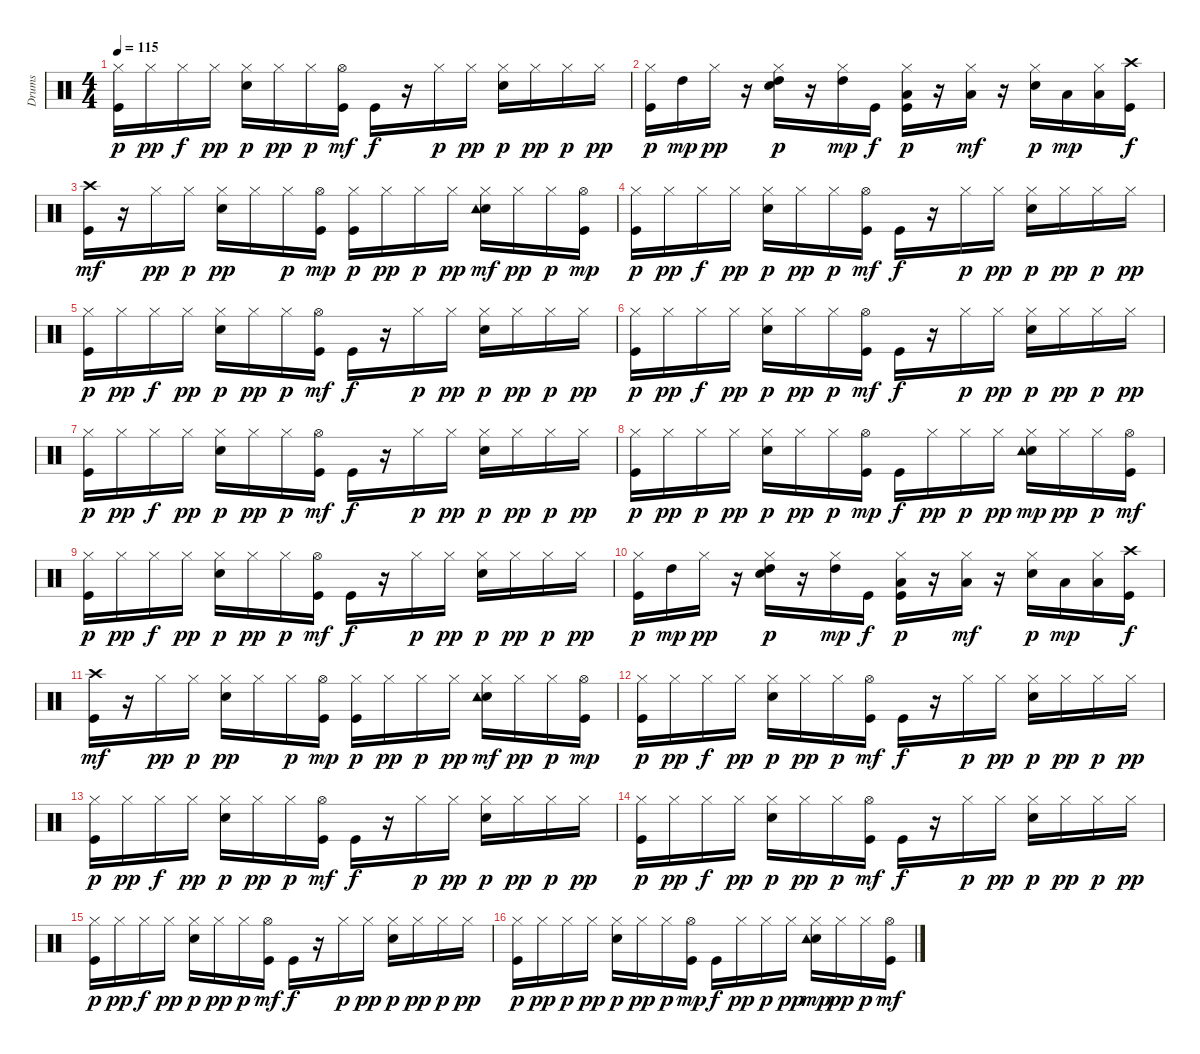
\track ("Drums  " "Drums  ") {instrument percussion}
\staff {score}
\articulation defaults
\ts (4 4)
\tempo 115
\clef neutral
\ks c
("Kick (hit)" "Hi-Hat (closed)").16{dy p} "Hi-Hat (closed)".16{dy pp} "Hi-Hat (closed)".16{dy f} "Hi-Hat (closed)".16{dy pp} ("Snare (hit) 2" "Hi-Hat (closed)").16{dy p} "Hi-Hat (closed)".16{dy pp} "Hi-Hat (closed)".16{dy p} ("Kick (hit)" "Hi-Hat (open)").16{dy mf} "Kick (hit)".16{dy f} r.16 "Hi-Hat (closed)".16{dy p} "Hi-Hat (closed)".16{dy pp} ("Snare (hit) 2" "Hi-Hat (closed)").16{dy p} "Hi-Hat (closed)".16{dy pp} "Hi-Hat (closed)".16{dy p} "Hi-Hat (closed)".16{dy pp} |
("Kick (hit)" "Hi-Hat (closed)").16{dy p} "High Tom (hit)".16{dy mp} "Hi-Hat (closed)".16{dy pp} r.16 ("Snare (hit) 2" "Hi-Hat (closed)" "High Tom (hit)").16{dy p} r.16 ("Hi-Hat (closed)" "High Tom (hit)").16{dy mp} "Kick (hit)".16{dy f} ("Kick (hit)" "Hi-Hat (closed)" "Low Tom (hit)").16{dy p} r.16 ("Hi-Hat (closed)" "Low Tom (hit)").16{dy mf} r.16 ("Snare (hit) 2" "Hi-Hat (closed)").16{dy p} "Low Floor Tom (hit)".16{dy mp} ("Hi-Hat (closed)" "Low Floor Tom (hit)").16 ("Kick (hit)" "Crash high (hit)").16{dy f} |
("Kick (hit)" "Crash high (hit)").16{dy mf} r.16 "Hi-Hat (closed)".16{dy pp} "Hi-Hat (closed)".16{dy p} ("Snare (hit) 2" "Hi-Hat (closed)").16{dy pp} "Hi-Hat (closed)".16 "Hi-Hat (closed)".16{dy p} ("Kick (hit)" "Hi-Hat (open)").16{dy mp} ("Kick (hit)" "Hi-Hat (closed)").16{dy p} "Hi-Hat (closed)".16{dy pp} "Hi-Hat (closed)".16{dy p} "Hi-Hat (closed)".16{dy pp} ("Snare (hit) 2" "Hi-Hat (closed)" "Tambourine (hit)").16{dy mf} "Hi-Hat (closed)".16{dy pp} "Hi-Hat (closed)".16{dy p} ("Kick (hit)" "Hi-Hat (open)").16{dy mp} |
("Kick (hit)" "Hi-Hat (closed)").16{dy p} "Hi-Hat (closed)".16{dy pp} "Hi-Hat (closed)".16{dy f} "Hi-Hat (closed)".16{dy pp} ("Snare (hit) 2" "Hi-Hat (closed)").16{dy p} "Hi-Hat (closed)".16{dy pp} "Hi-Hat (closed)".16{dy p} ("Kick (hit)" "Hi-Hat (open)").16{dy mf} "Kick (hit)".16{dy f} r.16 "Hi-Hat (closed)".16{dy p} "Hi-Hat (closed)".16{dy pp} ("Snare (hit) 2" "Hi-Hat (closed)").16{dy p} "Hi-Hat (closed)".16{dy pp} "Hi-Hat (closed)".16{dy p} "Hi-Hat (closed)".16{dy pp} |
("Kick (hit)" "Hi-Hat (closed)").16{dy p} "Hi-Hat (closed)".16{dy pp} "Hi-Hat (closed)".16{dy f} "Hi-Hat (closed)".16{dy pp} ("Snare (hit) 2" "Hi-Hat (closed)").16{dy p} "Hi-Hat (closed)".16{dy pp} "Hi-Hat (closed)".16{dy p} ("Kick (hit)" "Hi-Hat (open)").16{dy mf} "Kick (hit)".16{dy f} r.16 "Hi-Hat (closed)".16{dy p} "Hi-Hat (closed)".16{dy pp} ("Snare (hit) 2" "Hi-Hat (closed)").16{dy p} "Hi-Hat (closed)".16{dy pp} "Hi-Hat (closed)".16{dy p} "Hi-Hat (closed)".16{dy pp} |
("Kick (hit)" "Hi-Hat (closed)").16{dy p} "Hi-Hat (closed)".16{dy pp} "Hi-Hat (closed)".16{dy f} "Hi-Hat (closed)".16{dy pp} ("Snare (hit) 2" "Hi-Hat (closed)").16{dy p} "Hi-Hat (closed)".16{dy pp} "Hi-Hat (closed)".16{dy p} ("Kick (hit)" "Hi-Hat (open)").16{dy mf} "Kick (hit)".16{dy f} r.16 "Hi-Hat (closed)".16{dy p} "Hi-Hat (closed)".16{dy pp} ("Snare (hit) 2" "Hi-Hat (closed)").16{dy p} "Hi-Hat (closed)".16{dy pp} "Hi-Hat (closed)".16{dy p} "Hi-Hat (closed)".16{dy pp} |
("Kick (hit)" "Hi-Hat (closed)").16{dy p} "Hi-Hat (closed)".16{dy pp} "Hi-Hat (closed)".16{dy f} "Hi-Hat (closed)".16{dy pp} ("Snare (hit) 2" "Hi-Hat (closed)").16{dy p} "Hi-Hat (closed)".16{dy pp} "Hi-Hat (closed)".16{dy p} ("Kick (hit)" "Hi-Hat (open)").16{dy mf} "Kick (hit)".16{dy f} r.16 "Hi-Hat (closed)".16{dy p} "Hi-Hat (closed)".16{dy pp} ("Snare (hit) 2" "Hi-Hat (closed)").16{dy p} "Hi-Hat (closed)".16{dy pp} "Hi-Hat (closed)".16{dy p} "Hi-Hat (closed)".16{dy pp} |
("Kick (hit)" "Hi-Hat (closed)").16{dy p} "Hi-Hat (closed)".16{dy pp} "Hi-Hat (closed)".16{dy p} "Hi-Hat (closed)".16{dy pp} ("Snare (hit) 2" "Hi-Hat (closed)").16{dy p} "Hi-Hat (closed)".16{dy pp} "Hi-Hat (closed)".16{dy p} ("Kick (hit)" "Hi-Hat (open)").16{dy mp} "Kick (hit)".16{dy f} "Hi-Hat (closed)".16{dy pp} "Hi-Hat (closed)".16{dy p} "Hi-Hat (closed)".16{dy pp} ("Snare (hit) 2" "Hi-Hat (closed)" "Tambourine (hit)").16{dy mp} "Hi-Hat (closed)".16{dy pp} "Hi-Hat (closed)".16{dy p} ("Kick (hit)" "Hi-Hat (open)").16{dy mf} |
("Kick (hit)" "Hi-Hat (closed)").16{dy p} "Hi-Hat (closed)".16{dy pp} "Hi-Hat (closed)".16{dy f} "Hi-Hat (closed)".16{dy pp} ("Snare (hit) 2" "Hi-Hat (closed)").16{dy p} "Hi-Hat (closed)".16{dy pp} "Hi-Hat (closed)".16{dy p} ("Kick (hit)" "Hi-Hat (open)").16{dy mf} "Kick (hit)".16{dy f} r.16 "Hi-Hat (closed)".16{dy p} "Hi-Hat (closed)".16{dy pp} ("Snare (hit) 2" "Hi-Hat (closed)").16{dy p} "Hi-Hat (closed)".16{dy pp} "Hi-Hat (closed)".16{dy p} "Hi-Hat (closed)".16{dy pp} |
("Kick (hit)" "Hi-Hat (closed)").16{dy p} "High Tom (hit)".16{dy mp} "Hi-Hat (closed)".16{dy pp} r.16 ("Snare (hit) 2" "Hi-Hat (closed)" "High Tom (hit)").16{dy p} r.16 ("Hi-Hat (closed)" "High Tom (hit)").16{dy mp} "Kick (hit)".16{dy f} ("Kick (hit)" "Hi-Hat (closed)" "Low Tom (hit)").16{dy p} r.16 ("Hi-Hat (closed)" "Low Tom (hit)").16{dy mf} r.16 ("Snare (hit) 2" "Hi-Hat (closed)").16{dy p} "Low Floor Tom (hit)".16{dy mp} ("Hi-Hat (closed)" "Low Floor Tom (hit)").16 ("Kick (hit)" "Crash high (hit)").16{dy f} |
("Kick (hit)" "Crash high (hit)").16{dy mf} r.16 "Hi-Hat (closed)".16{dy pp} "Hi-Hat (closed)".16{dy p} ("Snare (hit) 2" "Hi-Hat (closed)").16{dy pp} "Hi-Hat (closed)".16 "Hi-Hat (closed)".16{dy p} ("Kick (hit)" "Hi-Hat (open)").16{dy mp} ("Kick (hit)" "Hi-Hat (closed)").16{dy p} "Hi-Hat (closed)".16{dy pp} "Hi-Hat (closed)".16{dy p} "Hi-Hat (closed)".16{dy pp} ("Snare (hit) 2" "Hi-Hat (closed)" "Tambourine (hit)").16{dy mf} "Hi-Hat (closed)".16{dy pp} "Hi-Hat (closed)".16{dy p} ("Kick (hit)" "Hi-Hat (open)").16{dy mp} |
("Kick (hit)" "Hi-Hat (closed)").16{dy p} "Hi-Hat (closed)".16{dy pp} "Hi-Hat (closed)".16{dy f} "Hi-Hat (closed)".16{dy pp} ("Snare (hit) 2" "Hi-Hat (closed)").16{dy p} "Hi-Hat (closed)".16{dy pp} "Hi-Hat (closed)".16{dy p} ("Kick (hit)" "Hi-Hat (open)").16{dy mf} "Kick (hit)".16{dy f} r.16 "Hi-Hat (closed)".16{dy p} "Hi-Hat (closed)".16{dy pp} ("Snare (hit) 2" "Hi-Hat (closed)").16{dy p} "Hi-Hat (closed)".16{dy pp} "Hi-Hat (closed)".16{dy p} "Hi-Hat (closed)".16{dy pp} |
("Kick (hit)" "Hi-Hat (closed)").16{dy p} "Hi-Hat (closed)".16{dy pp} "Hi-Hat (closed)".16{dy f} "Hi-Hat (closed)".16{dy pp} ("Snare (hit) 2" "Hi-Hat (closed)").16{dy p} "Hi-Hat (closed)".16{dy pp} "Hi-Hat (closed)".16{dy p} ("Kick (hit)" "Hi-Hat (open)").16{dy mf} "Kick (hit)".16{dy f} r.16 "Hi-Hat (closed)".16{dy p} "Hi-Hat (closed)".16{dy pp} ("Snare (hit) 2" "Hi-Hat (closed)").16{dy p} "Hi-Hat (closed)".16{dy pp} "Hi-Hat (closed)".16{dy p} "Hi-Hat (closed)".16{dy pp} |
("Kick (hit)" "Hi-Hat (closed)").16{dy p} "Hi-Hat (closed)".16{dy pp} "Hi-Hat (closed)".16{dy f} "Hi-Hat (closed)".16{dy pp} ("Snare (hit) 2" "Hi-Hat (closed)").16{dy p} "Hi-Hat (closed)".16{dy pp} "Hi-Hat (closed)".16{dy p} ("Kick (hit)" "Hi-Hat (open)").16{dy mf} "Kick (hit)".16{dy f} r.16 "Hi-Hat (closed)".16{dy p} "Hi-Hat (closed)".16{dy pp} ("Snare (hit) 2" "Hi-Hat (closed)").16{dy p} "Hi-Hat (closed)".16{dy pp} "Hi-Hat (closed)".16{dy p} "Hi-Hat (closed)".16{dy pp} |
("Kick (hit)" "Hi-Hat (closed)").16{dy p} "Hi-Hat (closed)".16{dy pp} "Hi-Hat (closed)".16{dy f} "Hi-Hat (closed)".16{dy pp} ("Snare (hit) 2" "Hi-Hat (closed)").16{dy p} "Hi-Hat (closed)".16{dy pp} "Hi-Hat (closed)".16{dy p} ("Kick (hit)" "Hi-Hat (open)").16{dy mf} "Kick (hit)".16{dy f} r.16 "Hi-Hat (closed)".16{dy p} "Hi-Hat (closed)".16{dy pp} ("Snare (hit) 2" "Hi-Hat (closed)").16{dy p} "Hi-Hat (closed)".16{dy pp} "Hi-Hat (closed)".16{dy p} "Hi-Hat (closed)".16{dy pp} |
("Kick (hit)" "Hi-Hat (closed)").16{dy p} "Hi-Hat (closed)".16{dy pp} "Hi-Hat (closed)".16{dy p} "Hi-Hat (closed)".16{dy pp} ("Snare (hit) 2" "Hi-Hat (closed)").16{dy p} "Hi-Hat (closed)".16{dy pp} "Hi-Hat (closed)".16{dy p} ("Kick (hit)" "Hi-Hat (open)").16{dy mp} "Kick (hit)".16{dy f} "Hi-Hat (closed)".16{dy pp} "Hi-Hat (closed)".16{dy p} "Hi-Hat (closed)".16{dy pp} ("Snare (hit) 2" "Hi-Hat (closed)" "Tambourine (hit)").16{dy mp} "Hi-Hat (closed)".16{dy pp} "Hi-Hat (closed)".16{dy p} ("Kick (hit)" "Hi-Hat (open)").16{dy mf}
